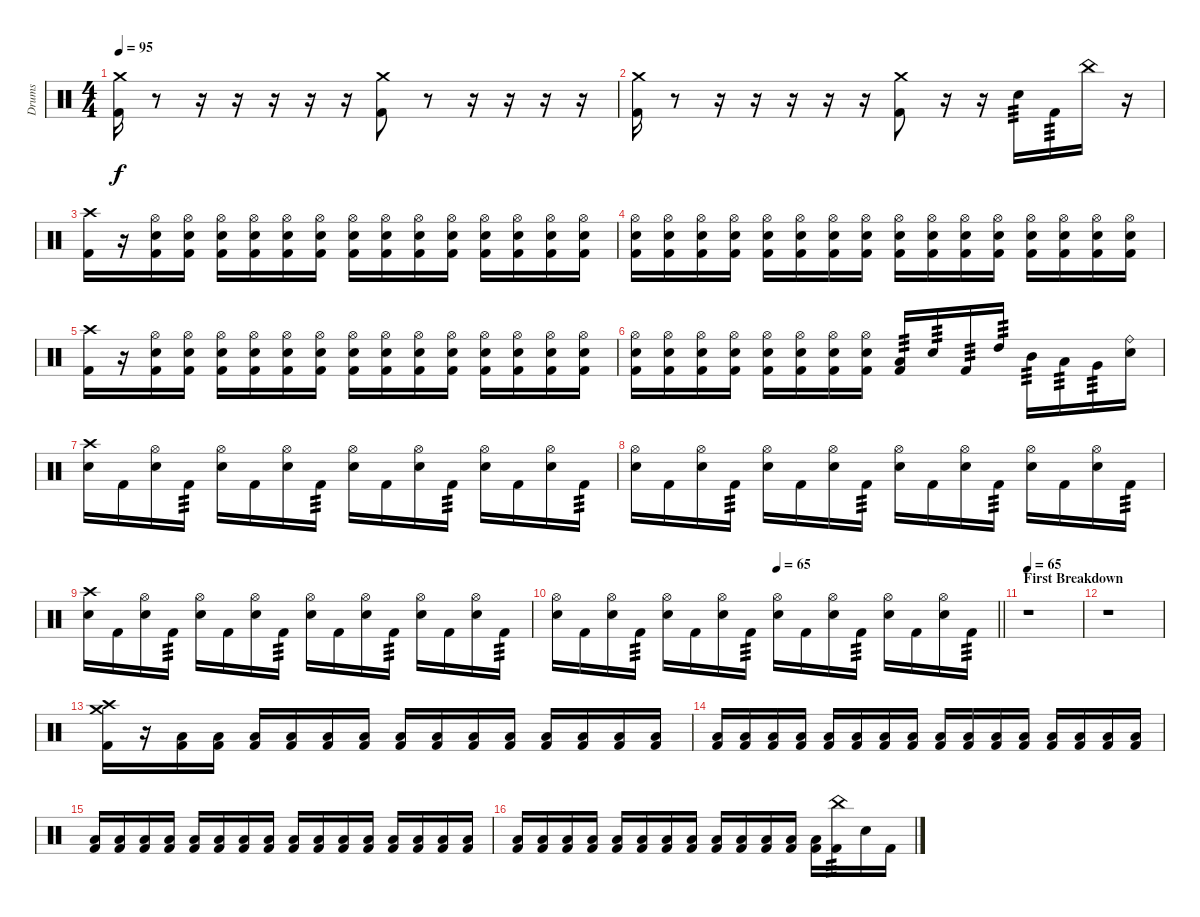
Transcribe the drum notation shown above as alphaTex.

\track ("Drums" "Drums") {instrument percussion}
\staff {score}
\articulation defaults
\ts (4 4)
\tempo 95
\clef neutral
\ks c
("Crash medium (hit)" "Kick (hit) 2").16{dy f} r.8{volume 0} r.16 r.16 r.16 r.16 r.16 ("Crash medium (hit)" "Kick (hit) 2").8{volume 13} r.8{volume 0} r.16 r.16 r.16 r.16 |
("Crash medium (hit)" "Kick (hit) 2").16{volume 13} r.8{volume 0} r.16 r.16 r.16 r.16 r.16 ("Crash medium (hit)" "Kick (hit) 2").8{volume 13} r.16 r.16 "Electric Snare (hit)".16{tp 3} "Kick (hit) 2".16{tp 3} "China (hit)".16 r.16 |
("Crash high (hit)" "Kick (hit) 2").16 r.16 ("Hi-Hat (open)" "Electric Snare (hit)" "Kick (hit) 2").16 ("Hi-Hat (open)" "Electric Snare (hit)" "Kick (hit) 2").16 ("Hi-Hat (open)" "Electric Snare (hit)" "Kick (hit) 2").16 ("Hi-Hat (open)" "Electric Snare (hit)" "Kick (hit) 2").16 ("Hi-Hat (open)" "Electric Snare (hit)" "Kick (hit) 2").16 ("Hi-Hat (open)" "Electric Snare (hit)" "Kick (hit) 2").16 ("Hi-Hat (open)" "Electric Snare (hit)" "Kick (hit) 2").16 ("Hi-Hat (open)" "Electric Snare (hit)" "Kick (hit) 2").16 ("Hi-Hat (open)" "Electric Snare (hit)" "Kick (hit) 2").16 ("Hi-Hat (open)" "Electric Snare (hit)" "Kick (hit) 2").16 ("Hi-Hat (open)" "Electric Snare (hit)" "Kick (hit) 2").16 ("Hi-Hat (open)" "Electric Snare (hit)" "Kick (hit) 2").16 ("Hi-Hat (open)" "Electric Snare (hit)" "Kick (hit) 2").16 ("Hi-Hat (open)" "Electric Snare (hit)" "Kick (hit) 2").16 |
("Hi-Hat (open)" "Electric Snare (hit)" "Kick (hit) 2").16 ("Hi-Hat (open)" "Electric Snare (hit)" "Kick (hit) 2").16 ("Hi-Hat (open)" "Electric Snare (hit)" "Kick (hit) 2").16 ("Hi-Hat (open)" "Electric Snare (hit)" "Kick (hit) 2").16 ("Hi-Hat (open)" "Electric Snare (hit)" "Kick (hit) 2").16 ("Hi-Hat (open)" "Electric Snare (hit)" "Kick (hit) 2").16 ("Hi-Hat (open)" "Electric Snare (hit)" "Kick (hit) 2").16 ("Hi-Hat (open)" "Electric Snare (hit)" "Kick (hit) 2").16 ("Hi-Hat (open)" "Electric Snare (hit)" "Kick (hit) 2").16 ("Hi-Hat (open)" "Electric Snare (hit)" "Kick (hit) 2").16 ("Hi-Hat (open)" "Electric Snare (hit)" "Kick (hit) 2").16 ("Hi-Hat (open)" "Electric Snare (hit)" "Kick (hit) 2").16 ("Hi-Hat (open)" "Electric Snare (hit)" "Kick (hit) 2").16 ("Hi-Hat (open)" "Electric Snare (hit)" "Kick (hit) 2").16 ("Hi-Hat (open)" "Electric Snare (hit)" "Kick (hit) 2").16 ("Hi-Hat (open)" "Electric Snare (hit)" "Kick (hit) 2").16 |
("Crash high (hit)" "Kick (hit) 2").16 r.16 ("Hi-Hat (open)" "Electric Snare (hit)" "Kick (hit) 2").16 ("Hi-Hat (open)" "Electric Snare (hit)" "Kick (hit) 2").16 ("Hi-Hat (open)" "Electric Snare (hit)" "Kick (hit) 2").16 ("Hi-Hat (open)" "Electric Snare (hit)" "Kick (hit) 2").16 ("Hi-Hat (open)" "Electric Snare (hit)" "Kick (hit) 2").16 ("Hi-Hat (open)" "Electric Snare (hit)" "Kick (hit) 2").16 ("Hi-Hat (open)" "Electric Snare (hit)" "Kick (hit) 2").16 ("Hi-Hat (open)" "Electric Snare (hit)" "Kick (hit) 2").16 ("Hi-Hat (open)" "Electric Snare (hit)" "Kick (hit) 2").16 ("Hi-Hat (open)" "Electric Snare (hit)" "Kick (hit) 2").16 ("Hi-Hat (open)" "Electric Snare (hit)" "Kick (hit) 2").16 ("Hi-Hat (open)" "Electric Snare (hit)" "Kick (hit) 2").16 ("Hi-Hat (open)" "Electric Snare (hit)" "Kick (hit) 2").16 ("Hi-Hat (open)" "Electric Snare (hit)" "Kick (hit) 2").16 |
("Hi-Hat (open)" "Electric Snare (hit)" "Kick (hit) 2").16 ("Hi-Hat (open)" "Electric Snare (hit)" "Kick (hit) 2").16 ("Hi-Hat (open)" "Electric Snare (hit)" "Kick (hit) 2").16 ("Hi-Hat (open)" "Electric Snare (hit)" "Kick (hit) 2").16 ("Hi-Hat (open)" "Electric Snare (hit)" "Kick (hit) 2").16 ("Hi-Hat (open)" "Electric Snare (hit)" "Kick (hit) 2").16 ("Hi-Hat (open)" "Electric Snare (hit)" "Kick (hit) 2").16 ("Hi-Hat (open)" "Electric Snare (hit)" "Kick (hit) 2").16 ("Low Floor Tom (hit)" "Kick (hit) 2").16{tp 3} "Electric Snare (hit)".16{tp 3} "Kick (hit) 2".16{tp 3} "High Tom (hit)".16{tp 3} "Mid Tom (hit)".16{tp 3} "Low Tom (hit)".16{tp 3} "Very Low Tom (hit)".16{tp 3} ("Ride (bell)" "Electric Snare (hit)").16 |
("Crash high (hit)" "Electric Snare (hit)").16 "Kick (hit) 2".16 ("Hi-Hat (open)" "Electric Snare (hit)").16 "Kick (hit) 2".16{tp 3} ("Hi-Hat (open)" "Electric Snare (hit)").16 "Kick (hit) 2".16 ("Hi-Hat (open)" "Electric Snare (hit)").16 "Kick (hit) 2".16{tp 3} ("Hi-Hat (open)" "Electric Snare (hit)").16 "Kick (hit) 2".16 ("Hi-Hat (open)" "Electric Snare (hit)").16 "Kick (hit) 2".16{tp 3} ("Hi-Hat (open)" "Electric Snare (hit)").16 "Kick (hit) 2".16 ("Hi-Hat (open)" "Electric Snare (hit)").16 "Kick (hit) 2".16{tp 3} |
("Hi-Hat (open)" "Electric Snare (hit)").16 "Kick (hit) 2".16 ("Hi-Hat (open)" "Electric Snare (hit)").16 "Kick (hit) 2".16{tp 3} ("Hi-Hat (open)" "Electric Snare (hit)").16 "Kick (hit) 2".16 ("Hi-Hat (open)" "Electric Snare (hit)").16 "Kick (hit) 2".16{tp 3} ("Hi-Hat (open)" "Electric Snare (hit)").16 "Kick (hit) 2".16 ("Hi-Hat (open)" "Electric Snare (hit)").16 "Kick (hit) 2".16{tp 3} ("Hi-Hat (open)" "Electric Snare (hit)").16 "Kick (hit) 2".16 ("Hi-Hat (open)" "Electric Snare (hit)").16 "Kick (hit) 2".16{tp 3} |
("Crash high (hit)" "Electric Snare (hit)").16 "Kick (hit) 2".16 ("Hi-Hat (open)" "Electric Snare (hit)").16 "Kick (hit) 2".16{tp 3} ("Hi-Hat (open)" "Electric Snare (hit)").16 "Kick (hit) 2".16 ("Hi-Hat (open)" "Electric Snare (hit)").16 "Kick (hit) 2".16{tp 3} ("Hi-Hat (open)" "Electric Snare (hit)").16 "Kick (hit) 2".16 ("Hi-Hat (open)" "Electric Snare (hit)").16 "Kick (hit) 2".16{tp 3} ("Hi-Hat (open)" "Electric Snare (hit)").16 "Kick (hit) 2".16 ("Hi-Hat (open)" "Electric Snare (hit)").16 "Kick (hit) 2".16{tp 3} |
\tempo (65 0.5)
\barLineRight lightlight
("Hi-Hat (open)" "Electric Snare (hit)").16 "Kick (hit) 2".16 ("Hi-Hat (open)" "Electric Snare (hit)").16 "Kick (hit) 2".16{tp 3} ("Hi-Hat (open)" "Electric Snare (hit)").16 "Kick (hit) 2".16 ("Hi-Hat (open)" "Electric Snare (hit)").16 "Kick (hit) 2".16{tp 3} ("Hi-Hat (open)" "Electric Snare (hit)").16 "Kick (hit) 2".16 ("Hi-Hat (open)" "Electric Snare (hit)").16 "Kick (hit) 2".16{tp 3} ("Hi-Hat (open)" "Electric Snare (hit)").16 "Kick (hit) 2".16 ("Hi-Hat (open)" "Electric Snare (hit)").16 "Kick (hit) 2".16{tp 3} |
\section ("" "First Breakdown")
\tempo 65
r.1 |
r.1 |
("Crash medium (hit)" "Crash high (hit)" "Kick (hit) 2").16 r.16 ("Low Floor Tom (hit)" "Kick (hit) 2").16 ("Low Floor Tom (hit)" "Kick (hit) 2").16 ("Low Floor Tom (hit)" "Kick (hit) 2").16 ("Low Floor Tom (hit)" "Kick (hit) 2").16 ("Low Floor Tom (hit)" "Kick (hit) 2").16 ("Low Floor Tom (hit)" "Kick (hit) 2").16 ("Low Floor Tom (hit)" "Kick (hit) 2").16 ("Low Floor Tom (hit)" "Kick (hit) 2").16 ("Low Floor Tom (hit)" "Kick (hit) 2").16 ("Low Floor Tom (hit)" "Kick (hit) 2").16 ("Low Floor Tom (hit)" "Kick (hit) 2").16 ("Low Floor Tom (hit)" "Kick (hit) 2").16 ("Low Floor Tom (hit)" "Kick (hit) 2").16 ("Low Floor Tom (hit)" "Kick (hit) 2").16 |
("Low Floor Tom (hit)" "Kick (hit) 2").16 ("Low Floor Tom (hit)" "Kick (hit) 2").16 ("Low Floor Tom (hit)" "Kick (hit) 2").16 ("Low Floor Tom (hit)" "Kick (hit) 2").16 ("Low Floor Tom (hit)" "Kick (hit) 2").16 ("Low Floor Tom (hit)" "Kick (hit) 2").16 ("Low Floor Tom (hit)" "Kick (hit) 2").16 ("Low Floor Tom (hit)" "Kick (hit) 2").16 ("Low Floor Tom (hit)" "Kick (hit) 2").16 ("Low Floor Tom (hit)" "Kick (hit) 2").16 ("Low Floor Tom (hit)" "Kick (hit) 2").16 ("Low Floor Tom (hit)" "Kick (hit) 2").16 ("Low Floor Tom (hit)" "Kick (hit) 2").16 ("Low Floor Tom (hit)" "Kick (hit) 2").16 ("Low Floor Tom (hit)" "Kick (hit) 2").16 ("Low Floor Tom (hit)" "Kick (hit) 2").16 |
("Low Floor Tom (hit)" "Kick (hit) 2").16 ("Low Floor Tom (hit)" "Kick (hit) 2").16 ("Low Floor Tom (hit)" "Kick (hit) 2").16 ("Low Floor Tom (hit)" "Kick (hit) 2").16 ("Low Floor Tom (hit)" "Kick (hit) 2").16 ("Low Floor Tom (hit)" "Kick (hit) 2").16 ("Low Floor Tom (hit)" "Kick (hit) 2").16 ("Low Floor Tom (hit)" "Kick (hit) 2").16 ("Low Floor Tom (hit)" "Kick (hit) 2").16 ("Low Floor Tom (hit)" "Kick (hit) 2").16 ("Low Floor Tom (hit)" "Kick (hit) 2").16 ("Low Floor Tom (hit)" "Kick (hit) 2").16 ("Low Floor Tom (hit)" "Kick (hit) 2").16 ("Low Floor Tom (hit)" "Kick (hit) 2").16 ("Low Floor Tom (hit)" "Kick (hit) 2").16 ("Low Floor Tom (hit)" "Kick (hit) 2").16 |
("Low Floor Tom (hit)" "Kick (hit) 2").16 ("Low Floor Tom (hit)" "Kick (hit) 2").16 ("Low Floor Tom (hit)" "Kick (hit) 2").16 ("Low Floor Tom (hit)" "Kick (hit) 2").16 ("Low Floor Tom (hit)" "Kick (hit) 2").16 ("Low Floor Tom (hit)" "Kick (hit) 2").16 ("Low Floor Tom (hit)" "Kick (hit) 2").16 ("Low Floor Tom (hit)" "Kick (hit) 2").16 ("Low Floor Tom (hit)" "Kick (hit) 2").16 ("Low Floor Tom (hit)" "Kick (hit) 2").16 ("Low Floor Tom (hit)" "Kick (hit) 2").16 ("Low Floor Tom (hit)" "Kick (hit) 2").16 ("Low Floor Tom (hit)" "Kick (hit) 2").16 ("China (hit)" "Kick (hit) 2").16{tp 3} "Electric Snare (hit)".16 "Kick (hit) 2".16
